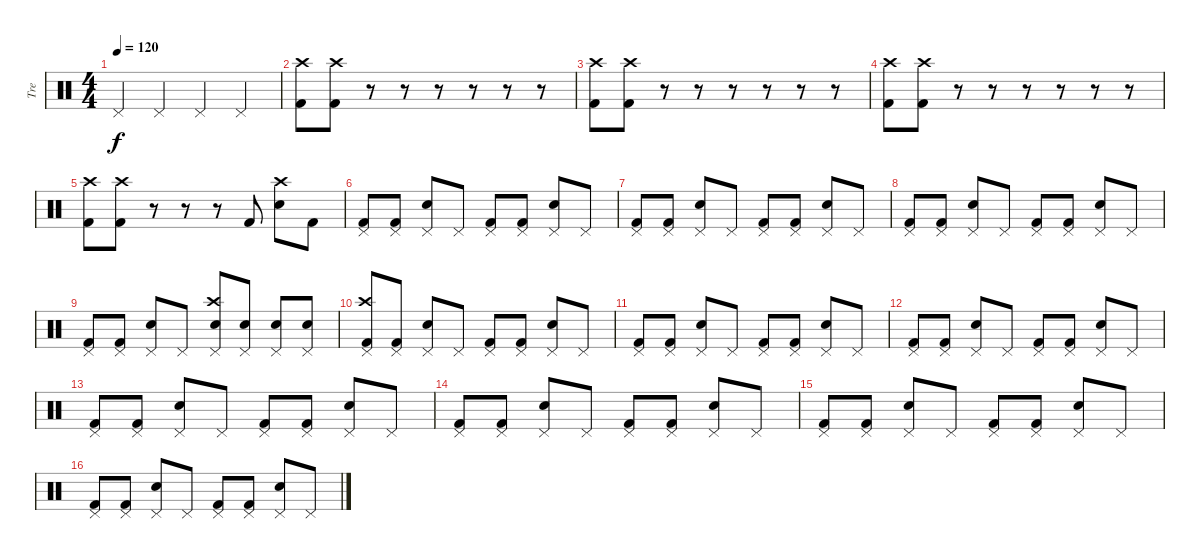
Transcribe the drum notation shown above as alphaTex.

\track ("Tre" "Tre") {instrument percussion}
\staff {score}
\articulation defaults
\ts (4 4)
\tempo 120
\clef neutral
\ks c "Pedal Hi-Hat (hit)".4{dy f} "Pedal Hi-Hat (hit)".4 "Pedal Hi-Hat (hit)".4 "Pedal Hi-Hat (hit)".4
|
("Crash high (hit)" "Kick (hit) 2").8 ("Crash high (hit)" "Kick (hit) 2").8 r.8 r.8 r.8 r.8 r.8 r.8 |
("Crash high (hit)" "Kick (hit) 2").8 ("Crash high (hit)" "Kick (hit) 2").8 r.8 r.8 r.8 r.8 r.8 r.8 |
("Crash high (hit)" "Kick (hit) 2").8 ("Crash high (hit)" "Kick (hit) 2").8 r.8 r.8 r.8 r.8 r.8 r.8 |
("Crash high (hit)" "Kick (hit) 2").8 ("Crash high (hit)" "Kick (hit) 2").8 r.8 r.8 r.8 "Kick (hit) 2".8 ("Crash high (hit)" "Electric Snare (hit)").8 "Kick (hit) 2".8 |
("Pedal Hi-Hat (hit)" "Kick (hit) 2").8 ("Pedal Hi-Hat (hit)" "Kick (hit) 2").8 ("Pedal Hi-Hat (hit)" "Electric Snare (hit)").8 "Pedal Hi-Hat (hit)".8 ("Pedal Hi-Hat (hit)" "Kick (hit) 2").8 ("Pedal Hi-Hat (hit)" "Kick (hit) 2").8 ("Pedal Hi-Hat (hit)" "Electric Snare (hit)").8 "Pedal Hi-Hat (hit)".8 |
("Pedal Hi-Hat (hit)" "Kick (hit) 2").8 ("Pedal Hi-Hat (hit)" "Kick (hit) 2").8 ("Pedal Hi-Hat (hit)" "Electric Snare (hit)").8 "Pedal Hi-Hat (hit)".8 ("Pedal Hi-Hat (hit)" "Kick (hit) 2").8 ("Pedal Hi-Hat (hit)" "Kick (hit) 2").8 ("Pedal Hi-Hat (hit)" "Electric Snare (hit)").8 "Pedal Hi-Hat (hit)".8 |
("Pedal Hi-Hat (hit)" "Kick (hit) 2").8 ("Pedal Hi-Hat (hit)" "Kick (hit) 2").8 ("Pedal Hi-Hat (hit)" "Electric Snare (hit)").8 "Pedal Hi-Hat (hit)".8 ("Pedal Hi-Hat (hit)" "Kick (hit) 2").8 ("Pedal Hi-Hat (hit)" "Kick (hit) 2").8 ("Pedal Hi-Hat (hit)" "Electric Snare (hit)").8 "Pedal Hi-Hat (hit)".8 |
("Pedal Hi-Hat (hit)" "Kick (hit) 2").8 ("Pedal Hi-Hat (hit)" "Kick (hit) 2").8 ("Pedal Hi-Hat (hit)" "Electric Snare (hit)").8 "Pedal Hi-Hat (hit)".8 ("Pedal Hi-Hat (hit)" "Electric Snare (hit)" "Crash high (hit)").8 ("Pedal Hi-Hat (hit)" "Electric Snare (hit)").8 ("Pedal Hi-Hat (hit)" "Electric Snare (hit)").8 ("Pedal Hi-Hat (hit)" "Electric Snare (hit)").8 |
("Pedal Hi-Hat (hit)" "Kick (hit) 2" "Crash high (hit)").8 ("Pedal Hi-Hat (hit)" "Kick (hit) 2").8 ("Pedal Hi-Hat (hit)" "Electric Snare (hit)").8 "Pedal Hi-Hat (hit)".8 ("Pedal Hi-Hat (hit)" "Kick (hit) 2").8 ("Pedal Hi-Hat (hit)" "Kick (hit) 2").8 ("Pedal Hi-Hat (hit)" "Electric Snare (hit)").8 "Pedal Hi-Hat (hit)".8 |
("Pedal Hi-Hat (hit)" "Kick (hit) 2").8 ("Pedal Hi-Hat (hit)" "Kick (hit) 2").8 ("Pedal Hi-Hat (hit)" "Electric Snare (hit)").8 "Pedal Hi-Hat (hit)".8 ("Pedal Hi-Hat (hit)" "Kick (hit) 2").8 ("Pedal Hi-Hat (hit)" "Kick (hit) 2").8 ("Pedal Hi-Hat (hit)" "Electric Snare (hit)").8 "Pedal Hi-Hat (hit)".8 |
("Pedal Hi-Hat (hit)" "Kick (hit) 2").8 ("Pedal Hi-Hat (hit)" "Kick (hit) 2").8 ("Pedal Hi-Hat (hit)" "Electric Snare (hit)").8 "Pedal Hi-Hat (hit)".8 ("Pedal Hi-Hat (hit)" "Kick (hit) 2").8 ("Pedal Hi-Hat (hit)" "Kick (hit) 2").8 ("Pedal Hi-Hat (hit)" "Electric Snare (hit)").8 "Pedal Hi-Hat (hit)".8 |
("Pedal Hi-Hat (hit)" "Kick (hit) 2").8 ("Pedal Hi-Hat (hit)" "Kick (hit) 2").8 ("Pedal Hi-Hat (hit)" "Electric Snare (hit)").8 "Pedal Hi-Hat (hit)".8 ("Pedal Hi-Hat (hit)" "Kick (hit) 2").8 ("Pedal Hi-Hat (hit)" "Kick (hit) 2").8 ("Pedal Hi-Hat (hit)" "Electric Snare (hit)").8 "Pedal Hi-Hat (hit)".8 |
("Pedal Hi-Hat (hit)" "Kick (hit) 2").8 ("Pedal Hi-Hat (hit)" "Kick (hit) 2").8 ("Pedal Hi-Hat (hit)" "Electric Snare (hit)").8 "Pedal Hi-Hat (hit)".8 ("Pedal Hi-Hat (hit)" "Kick (hit) 2").8 ("Pedal Hi-Hat (hit)" "Kick (hit) 2").8 ("Pedal Hi-Hat (hit)" "Electric Snare (hit)").8 "Pedal Hi-Hat (hit)".8 |
("Pedal Hi-Hat (hit)" "Kick (hit) 2").8 ("Pedal Hi-Hat (hit)" "Kick (hit) 2").8 ("Pedal Hi-Hat (hit)" "Electric Snare (hit)").8 "Pedal Hi-Hat (hit)".8 ("Pedal Hi-Hat (hit)" "Kick (hit) 2").8 ("Pedal Hi-Hat (hit)" "Kick (hit) 2").8 ("Pedal Hi-Hat (hit)" "Electric Snare (hit)").8 "Pedal Hi-Hat (hit)".8 |
("Pedal Hi-Hat (hit)" "Kick (hit) 2").8 ("Pedal Hi-Hat (hit)" "Kick (hit) 2").8 ("Pedal Hi-Hat (hit)" "Electric Snare (hit)").8 "Pedal Hi-Hat (hit)".8 ("Pedal Hi-Hat (hit)" "Kick (hit) 2").8 ("Pedal Hi-Hat (hit)" "Kick (hit) 2").8 ("Pedal Hi-Hat (hit)" "Electric Snare (hit)").8 "Pedal Hi-Hat (hit)".8
